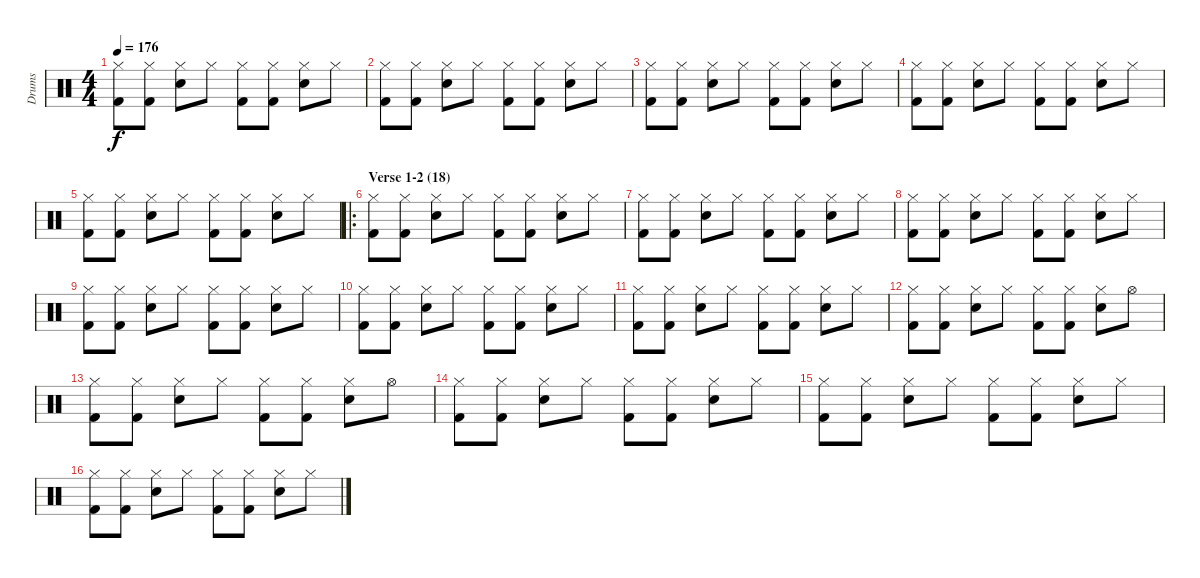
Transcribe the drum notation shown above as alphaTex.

\track ("Drums" "Drums") {instrument percussion}
\staff {score}
\articulation defaults
\ts (4 4)
\tempo 176
\clef neutral
\ks c
("Hi-Hat (closed)" "Kick (hit) 2").8{dy f} ("Hi-Hat (closed)" "Kick (hit) 2").8 ("Hi-Hat (closed)" "Snare (hit) 2").8 "Hi-Hat (closed)".8 ("Hi-Hat (closed)" "Kick (hit) 2").8 ("Hi-Hat (closed)" "Kick (hit) 2").8 ("Hi-Hat (closed)" "Snare (hit) 2").8 "Hi-Hat (closed)".8 |
("Hi-Hat (closed)" "Kick (hit) 2").8 ("Hi-Hat (closed)" "Kick (hit) 2").8 ("Hi-Hat (closed)" "Snare (hit) 2").8 "Hi-Hat (closed)".8 ("Hi-Hat (closed)" "Kick (hit) 2").8 ("Hi-Hat (closed)" "Kick (hit) 2").8 ("Hi-Hat (closed)" "Snare (hit) 2").8 "Hi-Hat (closed)".8 |
("Hi-Hat (closed)" "Kick (hit) 2").8 ("Hi-Hat (closed)" "Kick (hit) 2").8 ("Hi-Hat (closed)" "Snare (hit) 2").8 "Hi-Hat (closed)".8 ("Hi-Hat (closed)" "Kick (hit) 2").8 ("Hi-Hat (closed)" "Kick (hit) 2").8 ("Hi-Hat (closed)" "Snare (hit) 2").8 "Hi-Hat (closed)".8 |
("Hi-Hat (closed)" "Kick (hit) 2").8 ("Hi-Hat (closed)" "Kick (hit) 2").8 ("Hi-Hat (closed)" "Snare (hit) 2").8 "Hi-Hat (closed)".8 ("Hi-Hat (closed)" "Kick (hit) 2").8 ("Hi-Hat (closed)" "Kick (hit) 2").8 ("Hi-Hat (closed)" "Snare (hit) 2").8 "Hi-Hat (closed)".8 |
("Hi-Hat (closed)" "Kick (hit) 2").8 ("Hi-Hat (closed)" "Kick (hit) 2").8 ("Hi-Hat (closed)" "Snare (hit) 2").8 "Hi-Hat (closed)".8 ("Hi-Hat (closed)" "Kick (hit) 2").8 ("Hi-Hat (closed)" "Kick (hit) 2").8 ("Hi-Hat (closed)" "Snare (hit) 2").8 "Hi-Hat (closed)".8 |
\ro
\section ("" "Verse 1-2 (18)")
("Hi-Hat (closed)" "Kick (hit) 2").8 ("Hi-Hat (closed)" "Kick (hit) 2").8 ("Hi-Hat (closed)" "Snare (hit) 2").8 "Hi-Hat (closed)".8 ("Hi-Hat (closed)" "Kick (hit) 2").8 ("Hi-Hat (closed)" "Kick (hit) 2").8 ("Hi-Hat (closed)" "Snare (hit) 2").8 "Hi-Hat (closed)".8 |
("Hi-Hat (closed)" "Kick (hit) 2").8 ("Hi-Hat (closed)" "Kick (hit) 2").8 ("Hi-Hat (closed)" "Snare (hit) 2").8 "Hi-Hat (closed)".8 ("Hi-Hat (closed)" "Kick (hit) 2").8 ("Hi-Hat (closed)" "Kick (hit) 2").8 ("Hi-Hat (closed)" "Snare (hit) 2").8 "Hi-Hat (closed)".8 |
("Hi-Hat (closed)" "Kick (hit) 2").8 ("Hi-Hat (closed)" "Kick (hit) 2").8 ("Hi-Hat (closed)" "Snare (hit) 2").8 "Hi-Hat (closed)".8 ("Hi-Hat (closed)" "Kick (hit) 2").8 ("Hi-Hat (closed)" "Kick (hit) 2").8 ("Hi-Hat (closed)" "Snare (hit) 2").8 "Hi-Hat (closed)".8 |
("Hi-Hat (closed)" "Kick (hit) 2").8 ("Hi-Hat (closed)" "Kick (hit) 2").8 ("Hi-Hat (closed)" "Snare (hit) 2").8 "Hi-Hat (closed)".8 ("Hi-Hat (closed)" "Kick (hit) 2").8 ("Hi-Hat (closed)" "Kick (hit) 2").8 ("Hi-Hat (closed)" "Snare (hit) 2").8 "Hi-Hat (closed)".8 |
("Hi-Hat (closed)" "Kick (hit) 2").8 ("Hi-Hat (closed)" "Kick (hit) 2").8 ("Hi-Hat (closed)" "Snare (hit) 2").8 "Hi-Hat (closed)".8 ("Hi-Hat (closed)" "Kick (hit) 2").8 ("Hi-Hat (closed)" "Kick (hit) 2").8 ("Hi-Hat (closed)" "Snare (hit) 2").8 "Hi-Hat (closed)".8 |
("Hi-Hat (closed)" "Kick (hit) 2").8 ("Hi-Hat (closed)" "Kick (hit) 2").8 ("Hi-Hat (closed)" "Snare (hit) 2").8 "Hi-Hat (closed)".8 ("Hi-Hat (closed)" "Kick (hit) 2").8 ("Hi-Hat (closed)" "Kick (hit) 2").8 ("Hi-Hat (closed)" "Snare (hit) 2").8 "Hi-Hat (closed)".8 |
("Hi-Hat (closed)" "Kick (hit) 2").8 ("Hi-Hat (closed)" "Kick (hit) 2").8 ("Hi-Hat (closed)" "Snare (hit) 2").8 "Hi-Hat (closed)".8 ("Hi-Hat (closed)" "Kick (hit) 2").8 ("Hi-Hat (closed)" "Kick (hit) 2").8 ("Hi-Hat (closed)" "Snare (hit) 2").8 "Hi-Hat (open)".8 |
("Hi-Hat (closed)" "Kick (hit) 2").8 ("Hi-Hat (closed)" "Kick (hit) 2").8 ("Hi-Hat (closed)" "Snare (hit) 2").8 "Hi-Hat (closed)".8 ("Hi-Hat (closed)" "Kick (hit) 2").8 ("Hi-Hat (closed)" "Kick (hit) 2").8 ("Hi-Hat (closed)" "Snare (hit) 2").8 "Hi-Hat (open)".8 |
("Hi-Hat (closed)" "Kick (hit) 2").8 ("Hi-Hat (closed)" "Kick (hit) 2").8 ("Hi-Hat (closed)" "Snare (hit) 2").8 "Hi-Hat (closed)".8 ("Hi-Hat (closed)" "Kick (hit) 2").8 ("Hi-Hat (closed)" "Kick (hit) 2").8 ("Hi-Hat (closed)" "Snare (hit) 2").8 "Hi-Hat (closed)".8 |
("Hi-Hat (closed)" "Kick (hit) 2").8 ("Hi-Hat (closed)" "Kick (hit) 2").8 ("Hi-Hat (closed)" "Snare (hit) 2").8 "Hi-Hat (closed)".8 ("Hi-Hat (closed)" "Kick (hit) 2").8 ("Hi-Hat (closed)" "Kick (hit) 2").8 ("Hi-Hat (closed)" "Snare (hit) 2").8 "Hi-Hat (closed)".8 |
("Hi-Hat (closed)" "Kick (hit) 2").8 ("Hi-Hat (closed)" "Kick (hit) 2").8 ("Hi-Hat (closed)" "Snare (hit) 2").8 "Hi-Hat (closed)".8 ("Hi-Hat (closed)" "Kick (hit) 2").8 ("Hi-Hat (closed)" "Kick (hit) 2").8 ("Hi-Hat (closed)" "Snare (hit) 2").8 "Hi-Hat (closed)".8
